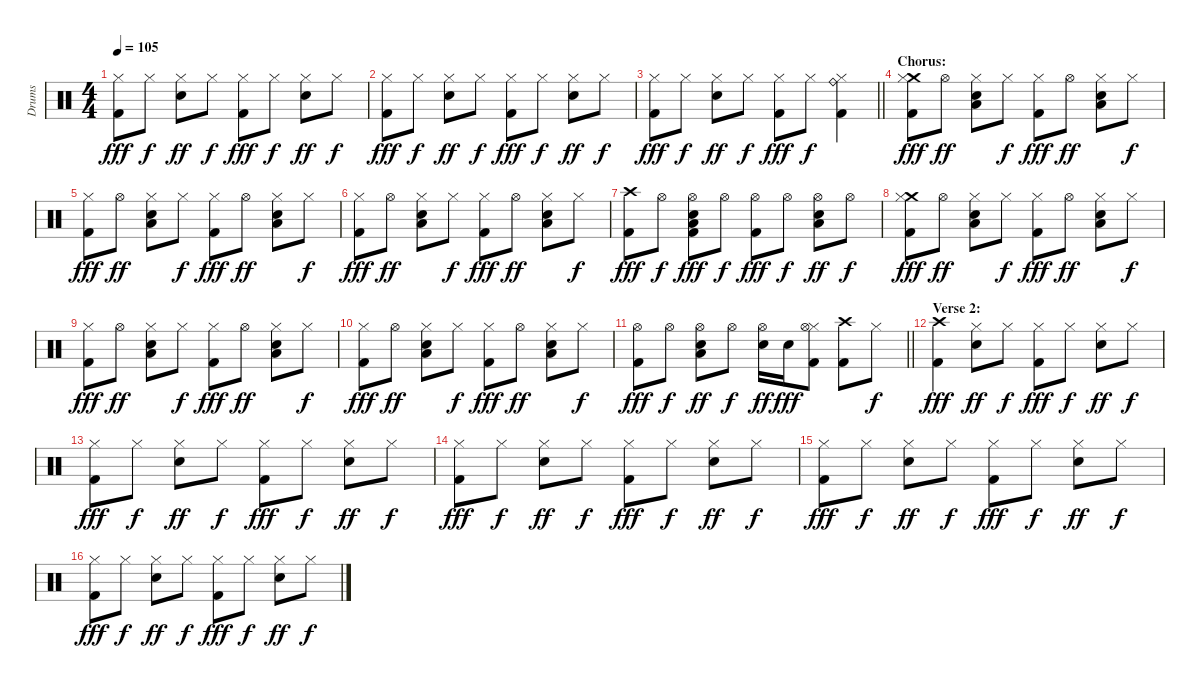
\track ("Drums" "Drums") {instrument percussion}
\staff {score}
\articulation defaults
\ts (4 4)
\tempo 105
\clef neutral
\ks c
("Hi-Hat (closed)" "Kick (hit) 2").8{dy fff} "Hi-Hat (closed)".8{dy f} ("Hi-Hat (closed)" "Electric Snare (hit)").8{dy ff} "Hi-Hat (closed)".8{dy f} ("Hi-Hat (closed)" "Kick (hit) 2").8{dy fff} "Hi-Hat (closed)".8{dy f} ("Hi-Hat (closed)" "Electric Snare (hit)").8{dy ff} "Hi-Hat (closed)".8{dy f} |
("Hi-Hat (closed)" "Kick (hit) 2").8{dy fff} "Hi-Hat (closed)".8{dy f} ("Hi-Hat (closed)" "Electric Snare (hit)").8{dy ff} "Hi-Hat (closed)".8{dy f} ("Hi-Hat (closed)" "Kick (hit) 2").8{dy fff} "Hi-Hat (closed)".8{dy f} ("Hi-Hat (closed)" "Electric Snare (hit)").8{dy ff} "Hi-Hat (closed)".8{dy f} |
\barLineRight lightlight
("Hi-Hat (closed)" "Kick (hit) 2").8{dy fff} "Hi-Hat (closed)".8{dy f} ("Hi-Hat (closed)" "Electric Snare (hit)").8{dy ff} "Hi-Hat (closed)".8{dy f} ("Hi-Hat (closed)" "Kick (hit) 2").8{dy fff} "Hi-Hat (closed)".8{dy f} ("Ride (bell)" "Hi-Hat (closed)" "Kick (hit) 2").4 |
\section ("" "Chorus:")
("Crash medium (hit)" "Hi-Hat (closed)" "Kick (hit) 2").8{dy fff} "Hi-Hat (open)".8{dy ff} ("Hi-Hat (closed)" "Low Floor Tom (hit)" "Snare (hit) 2").8 "Hi-Hat (closed)".8{dy f} ("Hi-Hat (closed)" "Kick (hit) 2").8{dy fff} "Hi-Hat (open)".8{dy ff} ("Hi-Hat (closed)" "Low Floor Tom (hit)" "Snare (hit) 2").8 "Hi-Hat (closed)".8{dy f} |
("Hi-Hat (closed)" "Kick (hit) 2").8{dy fff} "Hi-Hat (open)".8{dy ff} ("Hi-Hat (closed)" "Low Floor Tom (hit)" "Snare (hit) 2").8 "Hi-Hat (closed)".8{dy f} ("Hi-Hat (closed)" "Kick (hit) 2").8{dy fff} "Hi-Hat (open)".8{dy ff} ("Hi-Hat (closed)" "Low Floor Tom (hit)" "Snare (hit) 2").8 "Hi-Hat (closed)".8{dy f} |
("Hi-Hat (closed)" "Kick (hit) 2").8{dy fff} "Hi-Hat (open)".8{dy ff} ("Hi-Hat (closed)" "Low Floor Tom (hit)" "Snare (hit) 2").8 "Hi-Hat (closed)".8{dy f} ("Hi-Hat (closed)" "Kick (hit) 2").8{dy fff} "Hi-Hat (open)".8{dy ff} ("Hi-Hat (closed)" "Low Floor Tom (hit)" "Snare (hit) 2").8 "Hi-Hat (closed)".8{dy f} |
("Crash high (hit)" "Kick (hit) 2").8{dy fff} "Hi-Hat (open)".8{dy f} ("Hi-Hat (open)" "Low Floor Tom (hit)" "Snare (hit) 2" "Kick (hit) 2").8{dy fff} "Hi-Hat (open)".8{dy f} ("Hi-Hat (open)" "Kick (hit) 2").8{dy fff} "Hi-Hat (open)".8{dy f} ("Hi-Hat (open)" "Low Floor Tom (hit)" "Snare (hit) 2").8{dy ff} "Hi-Hat (open)".8{dy f} |
("Crash medium (hit)" "Hi-Hat (closed)" "Kick (hit) 2").8{dy fff} "Hi-Hat (open)".8{dy ff} ("Hi-Hat (closed)" "Low Floor Tom (hit)" "Snare (hit) 2").8 "Hi-Hat (closed)".8{dy f} ("Hi-Hat (closed)" "Kick (hit) 2").8{dy fff} "Hi-Hat (open)".8{dy ff} ("Hi-Hat (closed)" "Low Floor Tom (hit)" "Snare (hit) 2").8 "Hi-Hat (closed)".8{dy f} |
("Hi-Hat (closed)" "Kick (hit) 2").8{dy fff} "Hi-Hat (open)".8{dy ff} ("Hi-Hat (closed)" "Low Floor Tom (hit)" "Snare (hit) 2").8 "Hi-Hat (closed)".8{dy f} ("Hi-Hat (closed)" "Kick (hit) 2").8{dy fff} "Hi-Hat (open)".8{dy ff} ("Hi-Hat (closed)" "Low Floor Tom (hit)" "Snare (hit) 2").8 "Hi-Hat (closed)".8{dy f} |
("Hi-Hat (closed)" "Kick (hit) 2").8{dy fff} "Hi-Hat (open)".8{dy ff} ("Hi-Hat (closed)" "Low Floor Tom (hit)" "Snare (hit) 2").8 "Hi-Hat (closed)".8{dy f} ("Hi-Hat (closed)" "Kick (hit) 2").8{dy fff} "Hi-Hat (open)".8{dy ff} ("Hi-Hat (closed)" "Low Floor Tom (hit)" "Snare (hit) 2").8 "Hi-Hat (closed)".8{dy f} |
\barLineRight lightlight
("Hi-Hat (open)" "Kick (hit) 2").8{dy fff} "Hi-Hat (open)".8{dy f} ("Hi-Hat (open)" "Low Floor Tom (hit)" "Snare (hit) 2").8{dy ff} "Hi-Hat (open)".8{dy f} ("Snare (hit) 2" "Hi-Hat (open)").16{dy ff} "Snare (hit) 2".16{dy fff} ("Hi-Hat (closed)" "Kick (hit) 2" "Hi-Hat (open)").8 ("Crash high (hit)" "Kick (hit) 2").8 "Hi-Hat (closed)".8{dy f} |
\section ("" "Verse 2:")
("Crash high (hit)" "Kick (hit) 2").4{dy fff} ("Hi-Hat (closed)" "Electric Snare (hit)").8{dy ff} "Hi-Hat (closed)".8{dy f} ("Hi-Hat (closed)" "Kick (hit) 2").8{dy fff} "Hi-Hat (closed)".8{dy f} ("Hi-Hat (closed)" "Electric Snare (hit)").8{dy ff} "Hi-Hat (closed)".8{dy f} |
("Hi-Hat (closed)" "Kick (hit) 2").8{dy fff} "Hi-Hat (closed)".8{dy f} ("Hi-Hat (closed)" "Electric Snare (hit)").8{dy ff} "Hi-Hat (closed)".8{dy f} ("Hi-Hat (closed)" "Kick (hit) 2").8{dy fff} "Hi-Hat (closed)".8{dy f} ("Hi-Hat (closed)" "Electric Snare (hit)").8{dy ff} "Hi-Hat (closed)".8{dy f} |
("Hi-Hat (closed)" "Kick (hit) 2").8{dy fff} "Hi-Hat (closed)".8{dy f} ("Hi-Hat (closed)" "Electric Snare (hit)").8{dy ff} "Hi-Hat (closed)".8{dy f} ("Hi-Hat (closed)" "Kick (hit) 2").8{dy fff} "Hi-Hat (closed)".8{dy f} ("Hi-Hat (closed)" "Electric Snare (hit)").8{dy ff} "Hi-Hat (closed)".8{dy f} |
("Hi-Hat (closed)" "Kick (hit) 2").8{dy fff} "Hi-Hat (closed)".8{dy f} ("Hi-Hat (closed)" "Electric Snare (hit)").8{dy ff} "Hi-Hat (closed)".8{dy f} ("Hi-Hat (closed)" "Kick (hit) 2").8{dy fff} "Hi-Hat (closed)".8{dy f} ("Hi-Hat (closed)" "Electric Snare (hit)").8{dy ff} "Hi-Hat (closed)".8{dy f} |
("Hi-Hat (closed)" "Kick (hit) 2").8{dy fff} "Hi-Hat (closed)".8{dy f} ("Hi-Hat (closed)" "Electric Snare (hit)").8{dy ff} "Hi-Hat (closed)".8{dy f} ("Hi-Hat (closed)" "Kick (hit) 2").8{dy fff} "Hi-Hat (closed)".8{dy f} ("Hi-Hat (closed)" "Electric Snare (hit)").8{dy ff} "Hi-Hat (closed)".8{dy f}
